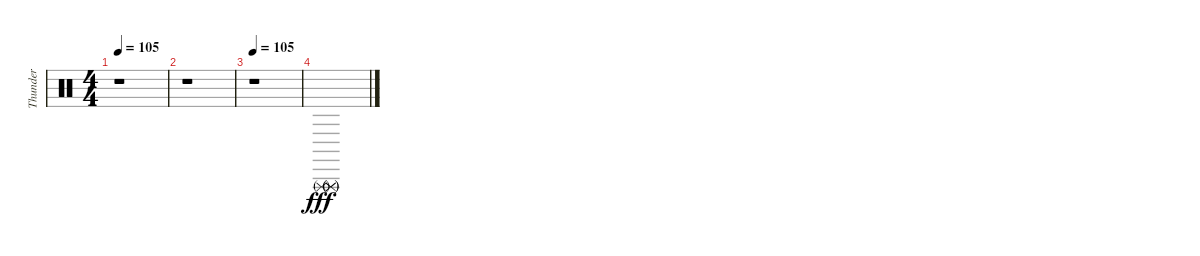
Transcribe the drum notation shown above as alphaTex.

\track ("Thunder" "Thunder") {instrument percussion}
\staff {score}
\articulation defaults
\ts (4 4)
\tempo 105
\clef neutral
\ks c
r.1{dy f} |
r.1 |
\tempo 105
r.1 |
("Triangle (rnute)" "Triangle (rnute)" "Triangle (rnute)").1{dy fff}
